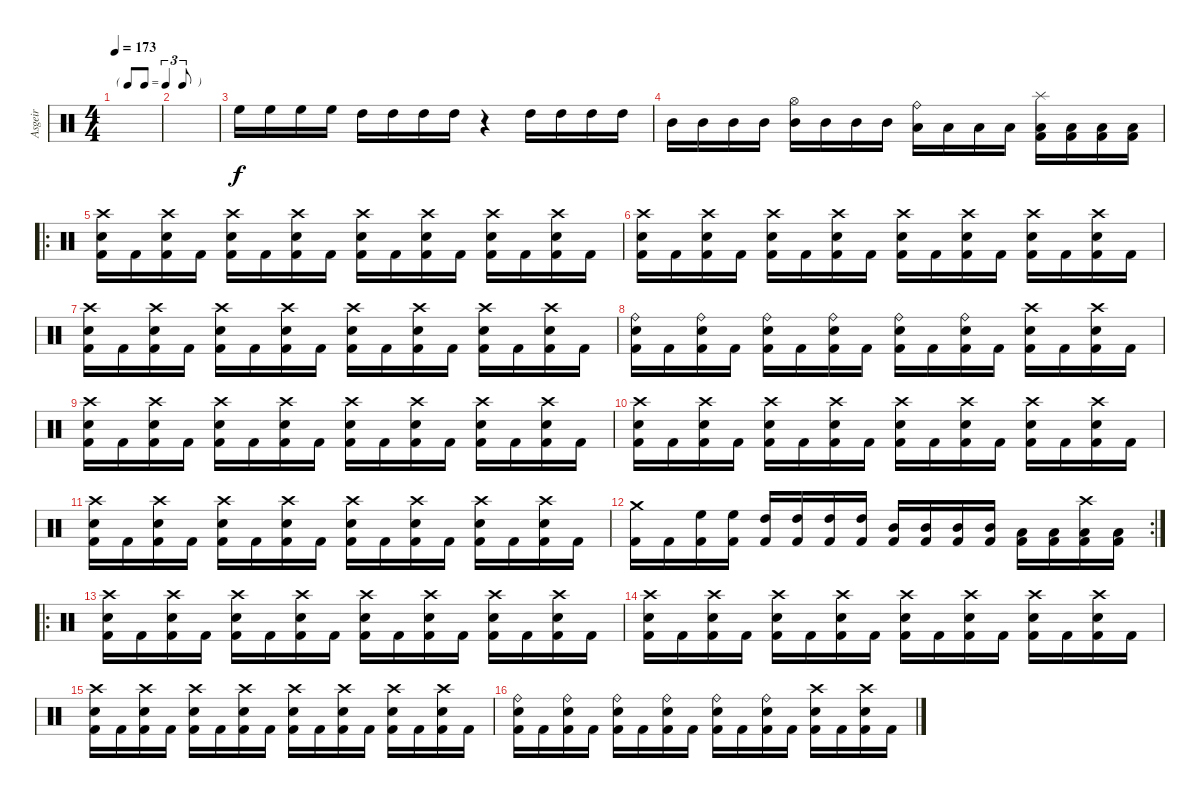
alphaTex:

\track ("Asgeir" "Asgeir") {instrument percussion}
\staff {score}
\articulation defaults
\ts (4 4)
\tf triplet8th
\tempo 173
\clef neutral
\ks c
|
|
"High Floor Tom (hit)".16 "High Floor Tom (hit)".16 "High Floor Tom (hit)".16 "High Floor Tom (hit)".16 "High Tom (hit)".16 "High Tom (hit)".16 "High Tom (hit)".16 "High Tom (hit)".16 r.4 "High Tom (hit)".16 "High Tom (hit)".16 "High Tom (hit)".16 "High Tom (hit)".16 |
"Mid Tom (hit)".16 "Mid Tom (hit)".16 "Mid Tom (hit)".16 "Mid Tom (hit)".16 ("Mid Tom (hit)" "Hi-Hat (open)").16 "Mid Tom (hit)".16 "Mid Tom (hit)".16 "Mid Tom (hit)".16 ("Low Tom (hit)" "Ride (bell)").16 "Low Tom (hit)".16 "Low Tom (hit)".16 "Low Tom (hit)".16 ("Kick (hit) 2" "Low Tom (hit)" "Splash (hit)").16 ("Kick (hit) 2" "Low Tom (hit)").16 ("Kick (hit) 2" "Low Tom (hit)").16 ("Kick (hit) 2" "Low Tom (hit)").16 |
\ro
("Kick (hit) 2" "Snare (hit) 2" "Crash high (hit)").16 "Kick (hit) 2".16 ("Kick (hit) 2" "Snare (hit) 2" "Crash high (hit)").16 "Kick (hit) 2".16 ("Kick (hit) 2" "Snare (hit) 2" "Crash high (hit)").16 "Kick (hit) 2".16 ("Kick (hit) 2" "Snare (hit) 2" "Crash high (hit)").16 "Kick (hit) 2".16 ("Kick (hit) 2" "Snare (hit) 2" "Crash high (hit)").16 "Kick (hit) 2".16 ("Kick (hit) 2" "Snare (hit) 2" "Crash high (hit)").16 "Kick (hit) 2".16 ("Kick (hit) 2" "Snare (hit) 2" "Crash high (hit)").16 "Kick (hit) 2".16 ("Kick (hit) 2" "Snare (hit) 2" "Crash high (hit)").16 "Kick (hit) 2".16 |
("Kick (hit) 2" "Snare (hit) 2" "Crash high (hit)").16 "Kick (hit) 2".16 ("Kick (hit) 2" "Snare (hit) 2" "Crash high (hit)").16 "Kick (hit) 2".16 ("Kick (hit) 2" "Snare (hit) 2" "Crash high (hit)").16 "Kick (hit) 2".16 ("Kick (hit) 2" "Snare (hit) 2" "Crash high (hit)").16 "Kick (hit) 2".16 ("Kick (hit) 2" "Snare (hit) 2" "Crash high (hit)").16 "Kick (hit) 2".16 ("Kick (hit) 2" "Snare (hit) 2" "Crash high (hit)").16 "Kick (hit) 2".16 ("Kick (hit) 2" "Snare (hit) 2" "Crash high (hit)").16 "Kick (hit) 2".16 ("Kick (hit) 2" "Snare (hit) 2" "Crash high (hit)").16 "Kick (hit) 2".16 |
("Kick (hit) 2" "Snare (hit) 2" "Crash high (hit)").16 "Kick (hit) 2".16 ("Kick (hit) 2" "Snare (hit) 2" "Crash high (hit)").16 "Kick (hit) 2".16 ("Kick (hit) 2" "Snare (hit) 2" "Crash high (hit)").16 "Kick (hit) 2".16 ("Kick (hit) 2" "Snare (hit) 2" "Crash high (hit)").16 "Kick (hit) 2".16 ("Kick (hit) 2" "Snare (hit) 2" "Crash high (hit)").16 "Kick (hit) 2".16 ("Kick (hit) 2" "Snare (hit) 2" "Crash high (hit)").16 "Kick (hit) 2".16 ("Kick (hit) 2" "Snare (hit) 2" "Crash high (hit)").16 "Kick (hit) 2".16 ("Kick (hit) 2" "Snare (hit) 2" "Crash high (hit)").16 "Kick (hit) 2".16 |
("Kick (hit) 2" "Snare (hit) 2" "Ride (bell)").16 "Kick (hit) 2".16 ("Kick (hit) 2" "Snare (hit) 2" "Ride (bell)").16 "Kick (hit) 2".16 ("Kick (hit) 2" "Snare (hit) 2" "Ride (bell)").16 "Kick (hit) 2".16 ("Kick (hit) 2" "Snare (hit) 2" "Ride (bell)").16 "Kick (hit) 2".16 ("Kick (hit) 2" "Snare (hit) 2" "Ride (bell)").16 "Kick (hit) 2".16 ("Kick (hit) 2" "Snare (hit) 2" "Ride (bell)").16 "Kick (hit) 2".16 ("Kick (hit) 2" "Snare (hit) 2" "Crash high (hit)").16 "Kick (hit) 2".16 ("Kick (hit) 2" "Snare (hit) 2" "Crash high (hit)").16 "Kick (hit) 2".16 |
("Kick (hit) 2" "Snare (hit) 2" "Crash high (hit)").16 "Kick (hit) 2".16 ("Kick (hit) 2" "Snare (hit) 2" "Crash high (hit)").16 "Kick (hit) 2".16 ("Kick (hit) 2" "Snare (hit) 2" "Crash high (hit)").16 "Kick (hit) 2".16 ("Kick (hit) 2" "Snare (hit) 2" "Crash high (hit)").16 "Kick (hit) 2".16 ("Kick (hit) 2" "Snare (hit) 2" "Crash high (hit)").16 "Kick (hit) 2".16 ("Kick (hit) 2" "Snare (hit) 2" "Crash high (hit)").16 "Kick (hit) 2".16 ("Kick (hit) 2" "Snare (hit) 2" "Crash high (hit)").16 "Kick (hit) 2".16 ("Kick (hit) 2" "Snare (hit) 2" "Crash high (hit)").16 "Kick (hit) 2".16 |
("Kick (hit) 2" "Snare (hit) 2" "Crash high (hit)").16 "Kick (hit) 2".16 ("Kick (hit) 2" "Snare (hit) 2" "Crash high (hit)").16 "Kick (hit) 2".16 ("Kick (hit) 2" "Snare (hit) 2" "Crash high (hit)").16 "Kick (hit) 2".16 ("Kick (hit) 2" "Snare (hit) 2" "Crash high (hit)").16 "Kick (hit) 2".16 ("Kick (hit) 2" "Snare (hit) 2" "Crash high (hit)").16 "Kick (hit) 2".16 ("Kick (hit) 2" "Snare (hit) 2" "Crash high (hit)").16 "Kick (hit) 2".16 ("Kick (hit) 2" "Snare (hit) 2" "Crash high (hit)").16 "Kick (hit) 2".16 ("Kick (hit) 2" "Snare (hit) 2" "Crash high (hit)").16 "Kick (hit) 2".16 |
("Kick (hit) 2" "Snare (hit) 2" "Crash high (hit)").16 "Kick (hit) 2".16 ("Kick (hit) 2" "Snare (hit) 2" "Crash high (hit)").16 "Kick (hit) 2".16 ("Kick (hit) 2" "Snare (hit) 2" "Crash high (hit)").16 "Kick (hit) 2".16 ("Kick (hit) 2" "Snare (hit) 2" "Crash high (hit)").16 "Kick (hit) 2".16 ("Kick (hit) 2" "Snare (hit) 2" "Crash high (hit)").16 "Kick (hit) 2".16 ("Kick (hit) 2" "Snare (hit) 2" "Crash high (hit)").16 "Kick (hit) 2".16 ("Kick (hit) 2" "Snare (hit) 2" "Crash high (hit)").16 "Kick (hit) 2".16 ("Kick (hit) 2" "Snare (hit) 2" "Crash high (hit)").16 "Kick (hit) 2".16 |
\rc 2
("Kick (hit) 2" "Crash medium (hit)").16 "Kick (hit) 2".16 ("Kick (hit) 2" "High Floor Tom (hit)").16 ("Kick (hit) 2" "High Floor Tom (hit)").16 ("Kick (hit) 2" "High Tom (hit)").16 ("Kick (hit) 2" "High Tom (hit)").16 ("Kick (hit) 2" "High Tom (hit)").16 ("Kick (hit) 2" "High Tom (hit)").16 ("Kick (hit) 2" "Mid Tom (hit)").16 ("Kick (hit) 2" "Mid Tom (hit)").16 ("Kick (hit) 2" "Mid Tom (hit)").16 ("Kick (hit) 2" "Mid Tom (hit)").16 ("Kick (hit) 2" "Low Tom (hit)").16 ("Kick (hit) 2" "Low Tom (hit)").16 ("Kick (hit) 2" "Low Tom (hit)" "Crash high (hit)").16 ("Kick (hit) 2" "Low Tom (hit)").16 |
\ro
("Kick (hit) 2" "Snare (hit) 2" "Crash high (hit)").16 "Kick (hit) 2".16 ("Kick (hit) 2" "Snare (hit) 2" "Crash high (hit)").16 "Kick (hit) 2".16 ("Kick (hit) 2" "Snare (hit) 2" "Crash high (hit)").16 "Kick (hit) 2".16 ("Kick (hit) 2" "Snare (hit) 2" "Crash high (hit)").16 "Kick (hit) 2".16 ("Kick (hit) 2" "Snare (hit) 2" "Crash high (hit)").16 "Kick (hit) 2".16 ("Kick (hit) 2" "Snare (hit) 2" "Crash high (hit)").16 "Kick (hit) 2".16 ("Kick (hit) 2" "Snare (hit) 2" "Crash high (hit)").16 "Kick (hit) 2".16 ("Kick (hit) 2" "Snare (hit) 2" "Crash high (hit)").16 "Kick (hit) 2".16 |
("Kick (hit) 2" "Snare (hit) 2" "Crash high (hit)").16 "Kick (hit) 2".16 ("Kick (hit) 2" "Snare (hit) 2" "Crash high (hit)").16 "Kick (hit) 2".16 ("Kick (hit) 2" "Snare (hit) 2" "Crash high (hit)").16 "Kick (hit) 2".16 ("Kick (hit) 2" "Snare (hit) 2" "Crash high (hit)").16 "Kick (hit) 2".16 ("Kick (hit) 2" "Snare (hit) 2" "Crash high (hit)").16 "Kick (hit) 2".16 ("Kick (hit) 2" "Snare (hit) 2" "Crash high (hit)").16 "Kick (hit) 2".16 ("Kick (hit) 2" "Snare (hit) 2" "Crash high (hit)").16 "Kick (hit) 2".16 ("Kick (hit) 2" "Snare (hit) 2" "Crash high (hit)").16 "Kick (hit) 2".16 |
("Kick (hit) 2" "Snare (hit) 2" "Crash high (hit)").16 "Kick (hit) 2".16 ("Kick (hit) 2" "Snare (hit) 2" "Crash high (hit)").16 "Kick (hit) 2".16 ("Kick (hit) 2" "Snare (hit) 2" "Crash high (hit)").16 "Kick (hit) 2".16 ("Kick (hit) 2" "Snare (hit) 2" "Crash high (hit)").16 "Kick (hit) 2".16 ("Kick (hit) 2" "Snare (hit) 2" "Crash high (hit)").16 "Kick (hit) 2".16 ("Kick (hit) 2" "Snare (hit) 2" "Crash high (hit)").16 "Kick (hit) 2".16 ("Kick (hit) 2" "Snare (hit) 2" "Crash high (hit)").16 "Kick (hit) 2".16 ("Kick (hit) 2" "Snare (hit) 2" "Crash high (hit)").16 "Kick (hit) 2".16 |
("Kick (hit) 2" "Snare (hit) 2" "Ride (bell)").16 "Kick (hit) 2".16 ("Kick (hit) 2" "Snare (hit) 2" "Ride (bell)").16 "Kick (hit) 2".16 ("Kick (hit) 2" "Snare (hit) 2" "Ride (bell)").16 "Kick (hit) 2".16 ("Kick (hit) 2" "Snare (hit) 2" "Ride (bell)").16 "Kick (hit) 2".16 ("Kick (hit) 2" "Snare (hit) 2" "Ride (bell)").16 "Kick (hit) 2".16 ("Kick (hit) 2" "Snare (hit) 2" "Ride (bell)").16 "Kick (hit) 2".16 ("Kick (hit) 2" "Snare (hit) 2" "Crash high (hit)").16 "Kick (hit) 2".16 ("Kick (hit) 2" "Snare (hit) 2" "Crash high (hit)").16 "Kick (hit) 2".16
